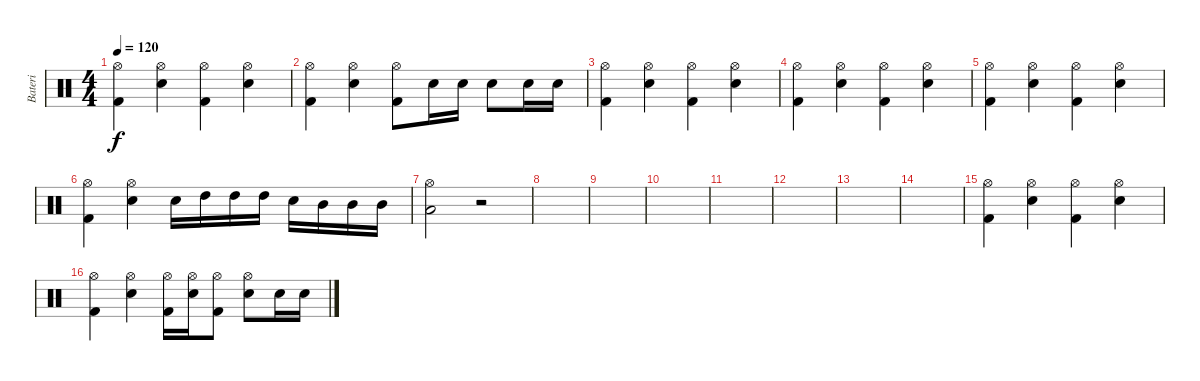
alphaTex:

\track ("Bateri" "Bateri") {instrument percussion}
\staff {score}
\articulation defaults
\ts (4 4)
\tempo 120
\clef neutral
\ks c
("Kick (hit) 2" "Hi-Hat (open)").4{dy f} ("Electric Snare (hit)" "Hi-Hat (open)").4 ("Kick (hit) 2" "Hi-Hat (open)").4 ("Electric Snare (hit)" "Hi-Hat (open)").4 |
("Kick (hit) 2" "Hi-Hat (open)").4 ("Electric Snare (hit)" "Hi-Hat (open)").4 ("Kick (hit) 2" "Hi-Hat (open)").8 "Electric Snare (hit)".16 "Electric Snare (hit)".16 "Electric Snare (hit)".8 "Electric Snare (hit)".16 "Electric Snare (hit)".16 |
("Kick (hit) 2" "Hi-Hat (open)").4 ("Electric Snare (hit)" "Hi-Hat (open)").4 ("Kick (hit) 2" "Hi-Hat (open)").4 ("Electric Snare (hit)" "Hi-Hat (open)").4 |
("Kick (hit) 2" "Hi-Hat (open)").4 ("Electric Snare (hit)" "Hi-Hat (open)").4 ("Kick (hit) 2" "Hi-Hat (open)").4 ("Electric Snare (hit)" "Hi-Hat (open)").4 |
("Kick (hit) 2" "Hi-Hat (open)").4 ("Electric Snare (hit)" "Hi-Hat (open)").4 ("Kick (hit) 2" "Hi-Hat (open)").4 ("Electric Snare (hit)" "Hi-Hat (open)").4 |
("Kick (hit) 2" "Hi-Hat (open)").4 ("Electric Snare (hit)" "Hi-Hat (open)").4 "Electric Snare (hit)".16 "High Tom (hit)".16 "High Tom (hit)".16 "High Tom (hit)".16 "Electric Snare (hit)".16 "Mid Tom (hit)".16 "Mid Tom (hit)".16 "Mid Tom (hit)".16 |
("Low Tom (hit)" "Hi-Hat (open)").2 r.2 |
|
|
|
|
|
|
|
("Kick (hit) 2" "Hi-Hat (open)").4 ("Electric Snare (hit)" "Hi-Hat (open)").4 ("Kick (hit) 2" "Hi-Hat (open)").4 ("Electric Snare (hit)" "Hi-Hat (open)").4 |
("Kick (hit) 2" "Hi-Hat (open)").4 ("Electric Snare (hit)" "Hi-Hat (open)").4 ("Kick (hit) 2" "Hi-Hat (open)").16 ("Electric Snare (hit)" "Hi-Hat (open)").16 ("Kick (hit) 2" "Hi-Hat (open)").8 ("Electric Snare (hit)" "Hi-Hat (open)").8 "Electric Snare (hit)".16 "Electric Snare (hit)".16
